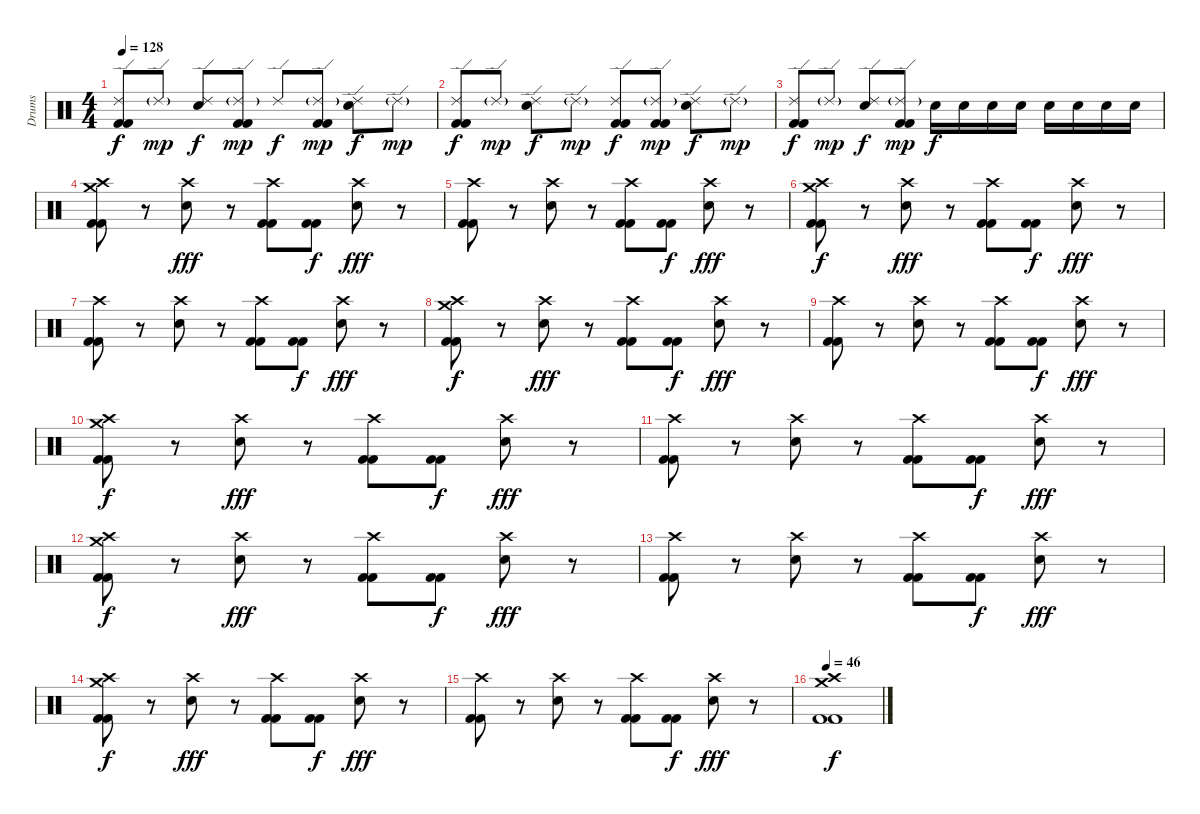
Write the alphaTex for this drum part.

\track ("Drums" "Drums") {instrument percussion}
\staff {score}
\articulation defaults
\ts (4 4)
\tempo 128
\clef neutral
\ks c
("Ride (edge) 2" "Kick (hit) 2" "Kick (hit) 2").8{dy f} "Ride (edge) 2"{g}.8{dy mp} ("Ride (edge) 2" "Electric Snare (hit)").8{dy f} ("Ride (edge) 2"{g} "Kick (hit) 2" "Kick (hit) 2").8{dy mp} "Ride (edge) 2".8{dy f} ("Ride (edge) 2"{g} "Kick (hit) 2" "Kick (hit) 2").8{dy mp} ("Ride (edge) 2" "Electric Snare (hit)").8{dy f} "Ride (edge) 2"{g}.8{dy mp} |
("Ride (edge) 2" "Kick (hit) 2" "Kick (hit) 2").8{dy f} "Ride (edge) 2"{g}.8{dy mp} ("Ride (edge) 2" "Electric Snare (hit)").8{dy f} "Ride (edge) 2"{g}.8{dy mp} ("Ride (edge) 2" "Kick (hit) 2" "Kick (hit) 2").8{dy f} ("Ride (edge) 2"{g} "Kick (hit) 2" "Kick (hit) 2").8{dy mp} ("Ride (edge) 2" "Electric Snare (hit)").8{dy f} "Ride (edge) 2"{g}.8{dy mp} |
("Ride (edge) 2" "Kick (hit) 2" "Kick (hit) 2").8{dy f} "Ride (edge) 2"{g}.8{dy mp} ("Ride (edge) 2" "Electric Snare (hit)").8{dy f} ("Ride (edge) 2"{g} "Kick (hit) 2" "Kick (hit) 2").8{dy mp} "Electric Snare (hit)".16{dy f} "Electric Snare (hit)".16 "Electric Snare (hit)".16 "Electric Snare (hit)".16 "Electric Snare (hit)".16 "Electric Snare (hit)".16 "Electric Snare (hit)".16 "Electric Snare (hit)".16 |
("Crash medium (hit)" "Crash high (hit)" "Kick (hit) 2" "Kick (hit) 2").8 r.8 ("Crash high (hit)" "Electric Snare (hit)").8{dy fff} r.8 ("Crash high (hit)" "Kick (hit) 2" "Kick (hit) 2").8 ("Kick (hit) 2" "Kick (hit) 2").8{dy f} ("Crash high (hit)" "Electric Snare (hit)").8{dy fff} r.8 |
("Crash high (hit)" "Kick (hit) 2" "Kick (hit) 2").8 r.8 ("Crash high (hit)" "Electric Snare (hit)").8 r.8 ("Crash high (hit)" "Kick (hit) 2" "Kick (hit) 2").8 ("Kick (hit) 2" "Kick (hit) 2").8{dy f} ("Crash high (hit)" "Electric Snare (hit)").8{dy fff} r.8 |
("Crash medium (hit)" "Crash high (hit)" "Kick (hit) 2" "Kick (hit) 2").8{dy f} r.8 ("Crash high (hit)" "Electric Snare (hit)").8{dy fff} r.8 ("Crash high (hit)" "Kick (hit) 2" "Kick (hit) 2").8 ("Kick (hit) 2" "Kick (hit) 2").8{dy f} ("Crash high (hit)" "Electric Snare (hit)").8{dy fff} r.8 |
("Crash high (hit)" "Kick (hit) 2" "Kick (hit) 2").8 r.8 ("Crash high (hit)" "Electric Snare (hit)").8 r.8 ("Crash high (hit)" "Kick (hit) 2" "Kick (hit) 2").8 ("Kick (hit) 2" "Kick (hit) 2").8{dy f} ("Crash high (hit)" "Electric Snare (hit)").8{dy fff} r.8 |
("Crash medium (hit)" "Crash high (hit)" "Kick (hit) 2" "Kick (hit) 2").8{dy f} r.8 ("Crash high (hit)" "Electric Snare (hit)").8{dy fff} r.8 ("Crash high (hit)" "Kick (hit) 2" "Kick (hit) 2").8 ("Kick (hit) 2" "Kick (hit) 2").8{dy f} ("Crash high (hit)" "Electric Snare (hit)").8{dy fff} r.8 |
("Crash high (hit)" "Kick (hit) 2" "Kick (hit) 2").8 r.8 ("Crash high (hit)" "Electric Snare (hit)").8 r.8 ("Crash high (hit)" "Kick (hit) 2" "Kick (hit) 2").8 ("Kick (hit) 2" "Kick (hit) 2").8{dy f} ("Crash high (hit)" "Electric Snare (hit)").8{dy fff} r.8 |
("Crash medium (hit)" "Crash high (hit)" "Kick (hit) 2" "Kick (hit) 2").8{dy f} r.8 ("Crash high (hit)" "Electric Snare (hit)").8{dy fff} r.8 ("Crash high (hit)" "Kick (hit) 2" "Kick (hit) 2").8 ("Kick (hit) 2" "Kick (hit) 2").8{dy f} ("Crash high (hit)" "Electric Snare (hit)").8{dy fff} r.8 |
("Crash high (hit)" "Kick (hit) 2" "Kick (hit) 2").8 r.8 ("Crash high (hit)" "Electric Snare (hit)").8 r.8 ("Crash high (hit)" "Kick (hit) 2" "Kick (hit) 2").8 ("Kick (hit) 2" "Kick (hit) 2").8{dy f} ("Crash high (hit)" "Electric Snare (hit)").8{dy fff} r.8 |
("Crash medium (hit)" "Crash high (hit)" "Kick (hit) 2" "Kick (hit) 2").8{dy f} r.8 ("Crash high (hit)" "Electric Snare (hit)").8{dy fff} r.8 ("Crash high (hit)" "Kick (hit) 2" "Kick (hit) 2").8 ("Kick (hit) 2" "Kick (hit) 2").8{dy f} ("Crash high (hit)" "Electric Snare (hit)").8{dy fff} r.8 |
("Crash high (hit)" "Kick (hit) 2" "Kick (hit) 2").8 r.8 ("Crash high (hit)" "Electric Snare (hit)").8 r.8 ("Crash high (hit)" "Kick (hit) 2" "Kick (hit) 2").8 ("Kick (hit) 2" "Kick (hit) 2").8{dy f} ("Crash high (hit)" "Electric Snare (hit)").8{dy fff} r.8 |
("Crash medium (hit)" "Crash high (hit)" "Kick (hit) 2" "Kick (hit) 2").8{dy f} r.8 ("Crash high (hit)" "Electric Snare (hit)").8{dy fff} r.8 ("Crash high (hit)" "Kick (hit) 2" "Kick (hit) 2").8 ("Kick (hit) 2" "Kick (hit) 2").8{dy f} ("Crash high (hit)" "Electric Snare (hit)").8{dy fff} r.8 |
("Crash high (hit)" "Kick (hit) 2" "Kick (hit) 2").8 r.8 ("Crash high (hit)" "Electric Snare (hit)").8 r.8 ("Crash high (hit)" "Kick (hit) 2" "Kick (hit) 2").8 ("Kick (hit) 2" "Kick (hit) 2").8{dy f} ("Crash high (hit)" "Electric Snare (hit)").8{dy fff} r.8 |
\tempo 46
("Crash medium (hit)" "Crash high (hit)" "Kick (hit) 2" "Kick (hit) 2").1{dy f}
